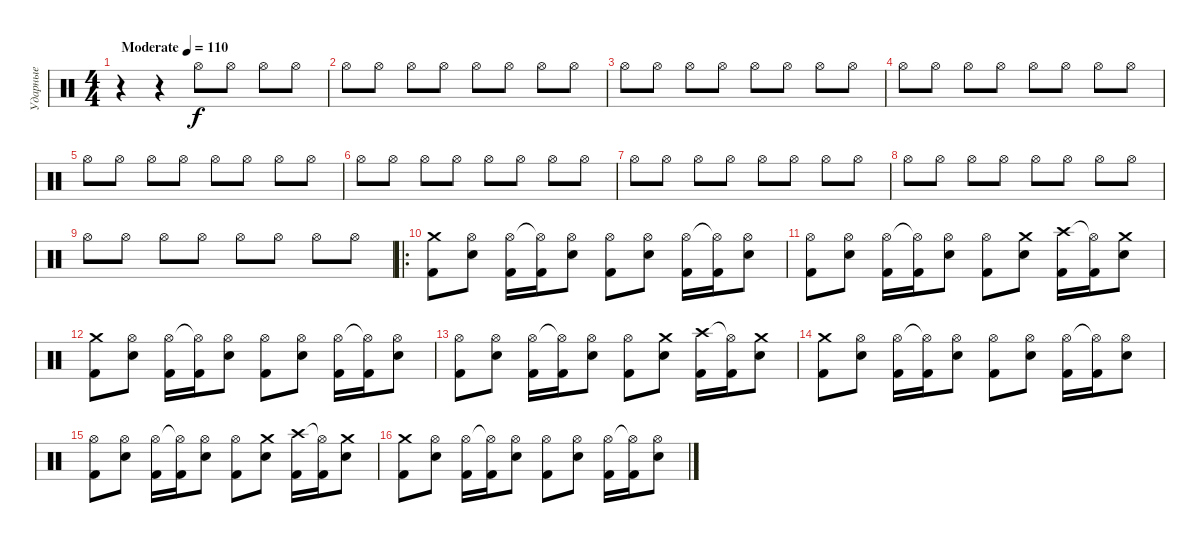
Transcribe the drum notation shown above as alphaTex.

\track ("Ударные" "Ударные") {instrument percussion}
\staff {score}
\articulation defaults
\ts (4 4)
\tempo (110 "Moderate")
\clef neutral
\ks c
r.4{dy f} r.4 "Hi-Hat (open)".8 "Hi-Hat (open)".8 "Hi-Hat (open)".8 "Hi-Hat (open)".8 |
"Hi-Hat (open)".8 "Hi-Hat (open)".8 "Hi-Hat (open)".8 "Hi-Hat (open)".8 "Hi-Hat (open)".8 "Hi-Hat (open)".8 "Hi-Hat (open)".8 "Hi-Hat (open)".8 |
"Hi-Hat (open)".8 "Hi-Hat (open)".8 "Hi-Hat (open)".8 "Hi-Hat (open)".8 "Hi-Hat (open)".8 "Hi-Hat (open)".8 "Hi-Hat (open)".8 "Hi-Hat (open)".8 |
"Hi-Hat (open)".8 "Hi-Hat (open)".8 "Hi-Hat (open)".8 "Hi-Hat (open)".8 "Hi-Hat (open)".8 "Hi-Hat (open)".8 "Hi-Hat (open)".8 "Hi-Hat (open)".8 |
"Hi-Hat (open)".8 "Hi-Hat (open)".8 "Hi-Hat (open)".8 "Hi-Hat (open)".8 "Hi-Hat (open)".8 "Hi-Hat (open)".8 "Hi-Hat (open)".8 "Hi-Hat (open)".8 |
"Hi-Hat (open)".8 "Hi-Hat (open)".8 "Hi-Hat (open)".8 "Hi-Hat (open)".8 "Hi-Hat (open)".8 "Hi-Hat (open)".8 "Hi-Hat (open)".8 "Hi-Hat (open)".8 |
"Hi-Hat (open)".8 "Hi-Hat (open)".8 "Hi-Hat (open)".8 "Hi-Hat (open)".8 "Hi-Hat (open)".8 "Hi-Hat (open)".8 "Hi-Hat (open)".8 "Hi-Hat (open)".8 |
"Hi-Hat (open)".8 "Hi-Hat (open)".8 "Hi-Hat (open)".8 "Hi-Hat (open)".8 "Hi-Hat (open)".8 "Hi-Hat (open)".8 "Hi-Hat (open)".8 "Hi-Hat (open)".8 |
"Hi-Hat (open)".8 "Hi-Hat (open)".8 "Hi-Hat (open)".8 "Hi-Hat (open)".8 "Hi-Hat (open)".8 "Hi-Hat (open)".8 "Hi-Hat (open)".8 "Hi-Hat (open)".8 |
\ro
("Crash medium (hit)" "Kick (hit) 2").8 ("Hi-Hat (open)" "Snare (hit) 2").8 ("Hi-Hat (open)" "Kick (hit) 2").16 ("Hi-Hat (open)"{t} "Kick (hit) 2").16 ("Hi-Hat (open)" "Snare (hit) 2").8 ("Hi-Hat (open)" "Kick (hit) 2").8 ("Hi-Hat (open)" "Snare (hit) 2").8 ("Hi-Hat (open)" "Kick (hit) 2").16 ("Hi-Hat (open)"{t} "Kick (hit) 2").16 ("Hi-Hat (open)" "Snare (hit) 2").8 |
("Hi-Hat (open)" "Kick (hit) 2").8 ("Hi-Hat (open)" "Snare (hit) 2").8 ("Hi-Hat (open)" "Kick (hit) 2").16 ("Hi-Hat (open)"{t} "Kick (hit) 2").16 ("Hi-Hat (open)" "Snare (hit) 2").8 ("Hi-Hat (open)" "Kick (hit) 2").8 ("Crash medium (hit)" "Snare (hit) 2").8 ("Crash high (hit)" "Kick (hit) 2").16 ("Hi-Hat (open)"{t} "Kick (hit) 2").16 ("Crash medium (hit)" "Snare (hit) 2").8 |
("Crash medium (hit)" "Kick (hit) 2").8 ("Hi-Hat (open)" "Snare (hit) 2").8 ("Hi-Hat (open)" "Kick (hit) 2").16 ("Hi-Hat (open)"{t} "Kick (hit) 2").16 ("Hi-Hat (open)" "Snare (hit) 2").8 ("Hi-Hat (open)" "Kick (hit) 2").8 ("Hi-Hat (open)" "Snare (hit) 2").8 ("Hi-Hat (open)" "Kick (hit) 2").16 ("Hi-Hat (open)"{t} "Kick (hit) 2").16 ("Hi-Hat (open)" "Snare (hit) 2").8 |
("Hi-Hat (open)" "Kick (hit) 2").8 ("Hi-Hat (open)" "Snare (hit) 2").8 ("Hi-Hat (open)" "Kick (hit) 2").16 ("Hi-Hat (open)"{t} "Kick (hit) 2").16 ("Hi-Hat (open)" "Snare (hit) 2").8 ("Hi-Hat (open)" "Kick (hit) 2").8 ("Crash medium (hit)" "Snare (hit) 2").8 ("Crash high (hit)" "Kick (hit) 2").16 ("Hi-Hat (open)"{t} "Kick (hit) 2").16 ("Crash medium (hit)" "Snare (hit) 2").8 |
("Crash medium (hit)" "Kick (hit) 2").8 ("Hi-Hat (open)" "Snare (hit) 2").8 ("Hi-Hat (open)" "Kick (hit) 2").16 ("Hi-Hat (open)"{t} "Kick (hit) 2").16 ("Hi-Hat (open)" "Snare (hit) 2").8 ("Hi-Hat (open)" "Kick (hit) 2").8 ("Hi-Hat (open)" "Snare (hit) 2").8 ("Hi-Hat (open)" "Kick (hit) 2").16 ("Hi-Hat (open)"{t} "Kick (hit) 2").16 ("Hi-Hat (open)" "Snare (hit) 2").8 |
("Hi-Hat (open)" "Kick (hit) 2").8 ("Hi-Hat (open)" "Snare (hit) 2").8 ("Hi-Hat (open)" "Kick (hit) 2").16 ("Hi-Hat (open)"{t} "Kick (hit) 2").16 ("Hi-Hat (open)" "Snare (hit) 2").8 ("Hi-Hat (open)" "Kick (hit) 2").8 ("Crash medium (hit)" "Snare (hit) 2").8 ("Crash high (hit)" "Kick (hit) 2").16 ("Hi-Hat (open)"{t} "Kick (hit) 2").16 ("Crash medium (hit)" "Snare (hit) 2").8 |
("Crash medium (hit)" "Kick (hit) 2").8 ("Hi-Hat (open)" "Snare (hit) 2").8 ("Hi-Hat (open)" "Kick (hit) 2").16 ("Hi-Hat (open)"{t} "Kick (hit) 2").16 ("Hi-Hat (open)" "Snare (hit) 2").8 ("Hi-Hat (open)" "Kick (hit) 2").8 ("Hi-Hat (open)" "Snare (hit) 2").8 ("Hi-Hat (open)" "Kick (hit) 2").16 ("Hi-Hat (open)"{t} "Kick (hit) 2").16 ("Hi-Hat (open)" "Snare (hit) 2").8
